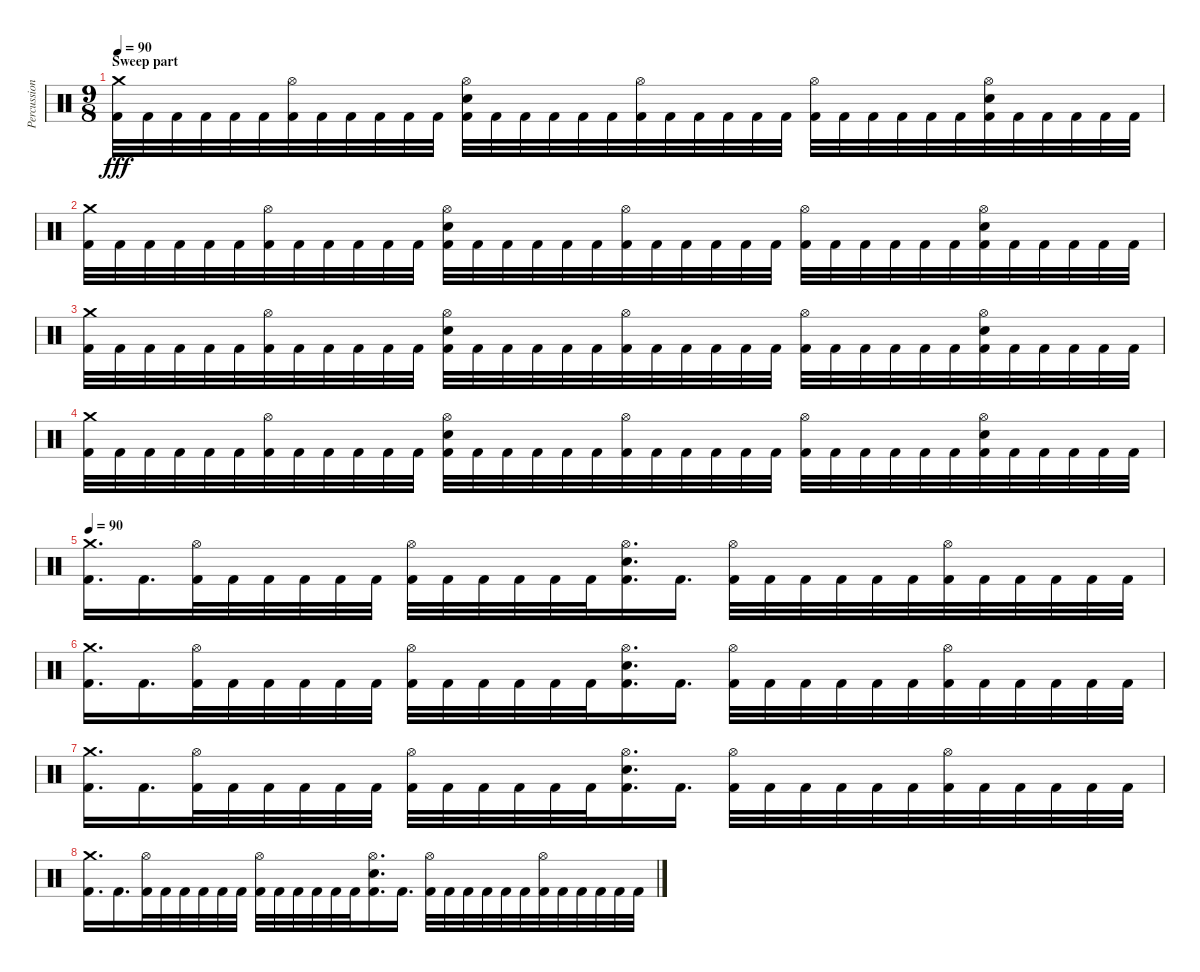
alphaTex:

\track ("Percussion" "Percussion") {instrument percussion}
\staff {score}
\articulation defaults
\ts (9 8)
\section ("" "Sweep part")
\tempo 90
\clef neutral
\ks c
("Crash medium (hit)" "Kick (hit) 2").32{dy fff} "Kick (hit) 2".32 "Kick (hit) 2".32 "Kick (hit) 2".32 "Kick (hit) 2".32 "Kick (hit) 2".32 ("Hi-Hat (open)" "Kick (hit) 2").32 "Kick (hit) 2".32 "Kick (hit) 2".32 "Kick (hit) 2".32 "Kick (hit) 2".32 "Kick (hit) 2".32 ("Hi-Hat (open)" "Electric Snare (hit)" "Kick (hit) 2").32 "Kick (hit) 2".32 "Kick (hit) 2".32 "Kick (hit) 2".32 "Kick (hit) 2".32 "Kick (hit) 2".32 ("Hi-Hat (open)" "Kick (hit) 2").32 "Kick (hit) 2".32 "Kick (hit) 2".32 "Kick (hit) 2".32 "Kick (hit) 2".32 "Kick (hit) 2".32 ("Hi-Hat (open)" "Kick (hit) 2").32 "Kick (hit) 2".32 "Kick (hit) 2".32 "Kick (hit) 2".32 "Kick (hit) 2".32 "Kick (hit) 2".32 ("Hi-Hat (open)" "Electric Snare (hit)" "Kick (hit) 2").32 "Kick (hit) 2".32 "Kick (hit) 2".32 "Kick (hit) 2".32 "Kick (hit) 2".32 "Kick (hit) 2".32 |
("Crash medium (hit)" "Kick (hit) 2").32 "Kick (hit) 2".32 "Kick (hit) 2".32 "Kick (hit) 2".32 "Kick (hit) 2".32 "Kick (hit) 2".32 ("Hi-Hat (open)" "Kick (hit) 2").32 "Kick (hit) 2".32 "Kick (hit) 2".32 "Kick (hit) 2".32 "Kick (hit) 2".32 "Kick (hit) 2".32 ("Hi-Hat (open)" "Electric Snare (hit)" "Kick (hit) 2").32 "Kick (hit) 2".32 "Kick (hit) 2".32 "Kick (hit) 2".32 "Kick (hit) 2".32 "Kick (hit) 2".32 ("Hi-Hat (open)" "Kick (hit) 2").32 "Kick (hit) 2".32 "Kick (hit) 2".32 "Kick (hit) 2".32 "Kick (hit) 2".32 "Kick (hit) 2".32 ("Hi-Hat (open)" "Kick (hit) 2").32 "Kick (hit) 2".32 "Kick (hit) 2".32 "Kick (hit) 2".32 "Kick (hit) 2".32 "Kick (hit) 2".32 ("Hi-Hat (open)" "Electric Snare (hit)" "Kick (hit) 2").32 "Kick (hit) 2".32 "Kick (hit) 2".32 "Kick (hit) 2".32 "Kick (hit) 2".32 "Kick (hit) 2".32 |
("Crash medium (hit)" "Kick (hit) 2").32 "Kick (hit) 2".32 "Kick (hit) 2".32 "Kick (hit) 2".32 "Kick (hit) 2".32 "Kick (hit) 2".32 ("Hi-Hat (open)" "Kick (hit) 2").32 "Kick (hit) 2".32 "Kick (hit) 2".32 "Kick (hit) 2".32 "Kick (hit) 2".32 "Kick (hit) 2".32 ("Hi-Hat (open)" "Electric Snare (hit)" "Kick (hit) 2").32 "Kick (hit) 2".32 "Kick (hit) 2".32 "Kick (hit) 2".32 "Kick (hit) 2".32 "Kick (hit) 2".32 ("Hi-Hat (open)" "Kick (hit) 2").32 "Kick (hit) 2".32 "Kick (hit) 2".32 "Kick (hit) 2".32 "Kick (hit) 2".32 "Kick (hit) 2".32 ("Hi-Hat (open)" "Kick (hit) 2").32 "Kick (hit) 2".32 "Kick (hit) 2".32 "Kick (hit) 2".32 "Kick (hit) 2".32 "Kick (hit) 2".32 ("Hi-Hat (open)" "Electric Snare (hit)" "Kick (hit) 2").32 "Kick (hit) 2".32 "Kick (hit) 2".32 "Kick (hit) 2".32 "Kick (hit) 2".32 "Kick (hit) 2".32 |
("Crash medium (hit)" "Kick (hit) 2").32 "Kick (hit) 2".32 "Kick (hit) 2".32 "Kick (hit) 2".32 "Kick (hit) 2".32 "Kick (hit) 2".32 ("Hi-Hat (open)" "Kick (hit) 2").32 "Kick (hit) 2".32 "Kick (hit) 2".32 "Kick (hit) 2".32 "Kick (hit) 2".32 "Kick (hit) 2".32 ("Hi-Hat (open)" "Electric Snare (hit)" "Kick (hit) 2").32 "Kick (hit) 2".32 "Kick (hit) 2".32 "Kick (hit) 2".32 "Kick (hit) 2".32 "Kick (hit) 2".32 ("Hi-Hat (open)" "Kick (hit) 2").32 "Kick (hit) 2".32 "Kick (hit) 2".32 "Kick (hit) 2".32 "Kick (hit) 2".32 "Kick (hit) 2".32 ("Hi-Hat (open)" "Kick (hit) 2").32 "Kick (hit) 2".32 "Kick (hit) 2".32 "Kick (hit) 2".32 "Kick (hit) 2".32 "Kick (hit) 2".32 ("Hi-Hat (open)" "Electric Snare (hit)" "Kick (hit) 2").32 "Kick (hit) 2".32 "Kick (hit) 2".32 "Kick (hit) 2".32 "Kick (hit) 2".32 "Kick (hit) 2".32 |
\tempo 90
("Crash medium (hit)" "Kick (hit) 2").16{d} "Kick (hit) 2".16{d} ("Hi-Hat (open)" "Kick (hit) 2").32 "Kick (hit) 2".32 "Kick (hit) 2".32 "Kick (hit) 2".32 "Kick (hit) 2".32 "Kick (hit) 2".32 ("Hi-Hat (open)" "Kick (hit) 2").32 "Kick (hit) 2".32 "Kick (hit) 2".32 "Kick (hit) 2".32 "Kick (hit) 2".32 "Kick (hit) 2".32 ("Hi-Hat (open)" "Electric Snare (hit)" "Kick (hit) 2").16{d} "Kick (hit) 2".16{d} ("Hi-Hat (open)" "Kick (hit) 2").32 "Kick (hit) 2".32 "Kick (hit) 2".32 "Kick (hit) 2".32 "Kick (hit) 2".32 "Kick (hit) 2".32 ("Hi-Hat (open)" "Kick (hit) 2").32 "Kick (hit) 2".32 "Kick (hit) 2".32 "Kick (hit) 2".32 "Kick (hit) 2".32 "Kick (hit) 2".32 |
("Crash medium (hit)" "Kick (hit) 2").16{d} "Kick (hit) 2".16{d} ("Hi-Hat (open)" "Kick (hit) 2").32 "Kick (hit) 2".32 "Kick (hit) 2".32 "Kick (hit) 2".32 "Kick (hit) 2".32 "Kick (hit) 2".32 ("Hi-Hat (open)" "Kick (hit) 2").32 "Kick (hit) 2".32 "Kick (hit) 2".32 "Kick (hit) 2".32 "Kick (hit) 2".32 "Kick (hit) 2".32 ("Hi-Hat (open)" "Electric Snare (hit)" "Kick (hit) 2").16{d} "Kick (hit) 2".16{d} ("Hi-Hat (open)" "Kick (hit) 2").32 "Kick (hit) 2".32 "Kick (hit) 2".32 "Kick (hit) 2".32 "Kick (hit) 2".32 "Kick (hit) 2".32 ("Hi-Hat (open)" "Kick (hit) 2").32 "Kick (hit) 2".32 "Kick (hit) 2".32 "Kick (hit) 2".32 "Kick (hit) 2".32 "Kick (hit) 2".32 |
("Crash medium (hit)" "Kick (hit) 2").16{d} "Kick (hit) 2".16{d} ("Hi-Hat (open)" "Kick (hit) 2").32 "Kick (hit) 2".32 "Kick (hit) 2".32 "Kick (hit) 2".32 "Kick (hit) 2".32 "Kick (hit) 2".32 ("Hi-Hat (open)" "Kick (hit) 2").32 "Kick (hit) 2".32 "Kick (hit) 2".32 "Kick (hit) 2".32 "Kick (hit) 2".32 "Kick (hit) 2".32 ("Hi-Hat (open)" "Electric Snare (hit)" "Kick (hit) 2").16{d} "Kick (hit) 2".16{d} ("Hi-Hat (open)" "Kick (hit) 2").32 "Kick (hit) 2".32 "Kick (hit) 2".32 "Kick (hit) 2".32 "Kick (hit) 2".32 "Kick (hit) 2".32 ("Hi-Hat (open)" "Kick (hit) 2").32 "Kick (hit) 2".32 "Kick (hit) 2".32 "Kick (hit) 2".32 "Kick (hit) 2".32 "Kick (hit) 2".32 |
("Crash medium (hit)" "Kick (hit) 2").16{d} "Kick (hit) 2".16{d} ("Hi-Hat (open)" "Kick (hit) 2").32 "Kick (hit) 2".32 "Kick (hit) 2".32 "Kick (hit) 2".32 "Kick (hit) 2".32 "Kick (hit) 2".32 ("Hi-Hat (open)" "Kick (hit) 2").32 "Kick (hit) 2".32 "Kick (hit) 2".32 "Kick (hit) 2".32 "Kick (hit) 2".32 "Kick (hit) 2".32 ("Hi-Hat (open)" "Electric Snare (hit)" "Kick (hit) 2").16{d} "Kick (hit) 2".16{d} ("Hi-Hat (open)" "Kick (hit) 2").32 "Kick (hit) 2".32 "Kick (hit) 2".32 "Kick (hit) 2".32 "Kick (hit) 2".32 "Kick (hit) 2".32 ("Hi-Hat (open)" "Kick (hit) 2").32 "Kick (hit) 2".32 "Kick (hit) 2".32 "Kick (hit) 2".32 "Kick (hit) 2".32 "Kick (hit) 2".32
